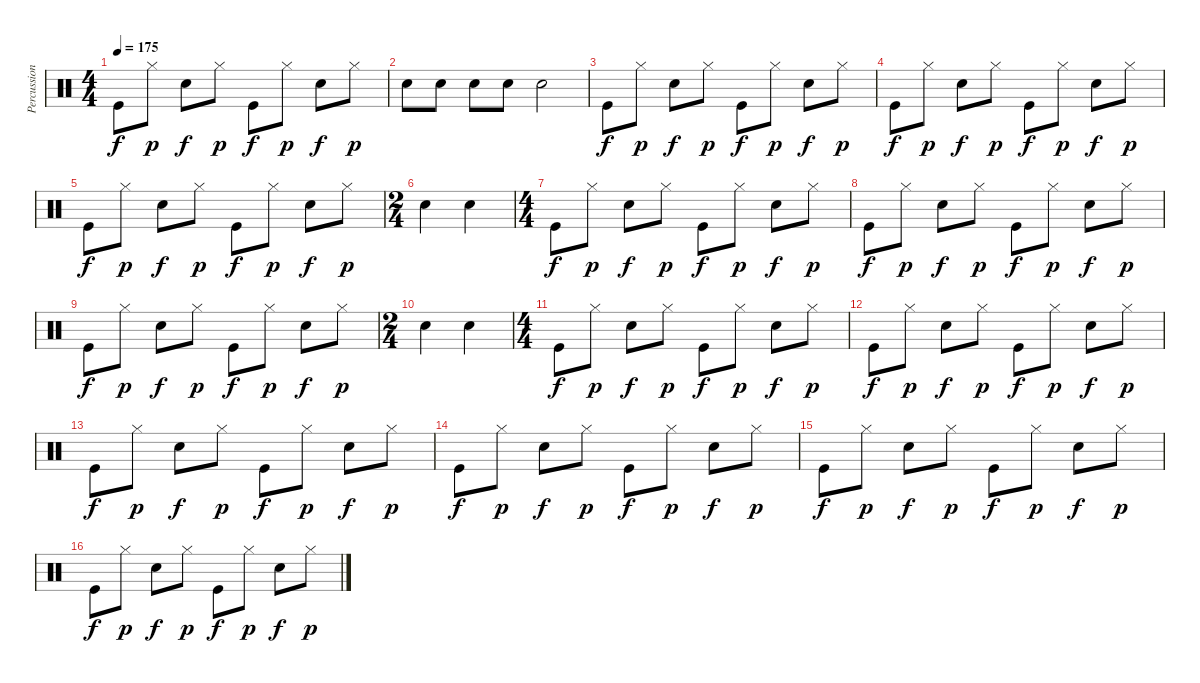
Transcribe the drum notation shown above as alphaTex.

\track ("Percussion" "Percussion") {instrument percussion}
\staff {score}
\articulation defaults
\ts (4 4)
\tempo 175
\clef neutral
\ks c "Kick (hit)".8{dy f} "Hi-Hat (closed)".8{dy p} "Snare (hit) 2".8{dy f} "Hi-Hat (closed)".8{dy p} "Kick (hit)".8{dy f} "Hi-Hat (closed)".8{dy p} "Snare (hit) 2".8{dy f} "Hi-Hat (closed)".8{dy p}
|
"Snare (hit) 2".8 "Snare (hit) 2".8 "Snare (hit) 2".8 "Snare (hit) 2".8 "Snare (hit) 2".2 |
"Kick (hit)".8{dy f} "Hi-Hat (closed)".8{dy p} "Snare (hit) 2".8{dy f} "Hi-Hat (closed)".8{dy p} "Kick (hit)".8{dy f} "Hi-Hat (closed)".8{dy p} "Snare (hit) 2".8{dy f} "Hi-Hat (closed)".8{dy p} |
"Kick (hit)".8{dy f} "Hi-Hat (closed)".8{dy p} "Snare (hit) 2".8{dy f} "Hi-Hat (closed)".8{dy p} "Kick (hit)".8{dy f} "Hi-Hat (closed)".8{dy p} "Snare (hit) 2".8{dy f} "Hi-Hat (closed)".8{dy p} |
"Kick (hit)".8{dy f} "Hi-Hat (closed)".8{dy p} "Snare (hit) 2".8{dy f} "Hi-Hat (closed)".8{dy p} "Kick (hit)".8{dy f} "Hi-Hat (closed)".8{dy p} "Snare (hit) 2".8{dy f} "Hi-Hat (closed)".8{dy p} |
\ts (2 4)
"Snare (hit) 2".4 "Snare (hit) 2".4 |
\ts (4 4)
"Kick (hit)".8{dy f} "Hi-Hat (closed)".8{dy p} "Snare (hit) 2".8{dy f} "Hi-Hat (closed)".8{dy p} "Kick (hit)".8{dy f} "Hi-Hat (closed)".8{dy p} "Snare (hit) 2".8{dy f} "Hi-Hat (closed)".8{dy p} |
"Kick (hit)".8{dy f} "Hi-Hat (closed)".8{dy p} "Snare (hit) 2".8{dy f} "Hi-Hat (closed)".8{dy p} "Kick (hit)".8{dy f} "Hi-Hat (closed)".8{dy p} "Snare (hit) 2".8{dy f} "Hi-Hat (closed)".8{dy p} |
"Kick (hit)".8{dy f} "Hi-Hat (closed)".8{dy p} "Snare (hit) 2".8{dy f} "Hi-Hat (closed)".8{dy p} "Kick (hit)".8{dy f} "Hi-Hat (closed)".8{dy p} "Snare (hit) 2".8{dy f} "Hi-Hat (closed)".8{dy p} |
\ts (2 4)
"Snare (hit) 2".4 "Snare (hit) 2".4 |
\ts (4 4)
"Kick (hit)".8{dy f} "Hi-Hat (closed)".8{dy p} "Snare (hit) 2".8{dy f} "Hi-Hat (closed)".8{dy p} "Kick (hit)".8{dy f} "Hi-Hat (closed)".8{dy p} "Snare (hit) 2".8{dy f} "Hi-Hat (closed)".8{dy p} |
"Kick (hit)".8{dy f} "Hi-Hat (closed)".8{dy p} "Snare (hit) 2".8{dy f} "Hi-Hat (closed)".8{dy p} "Kick (hit)".8{dy f} "Hi-Hat (closed)".8{dy p} "Snare (hit) 2".8{dy f} "Hi-Hat (closed)".8{dy p} |
"Kick (hit)".8{dy f} "Hi-Hat (closed)".8{dy p} "Snare (hit) 2".8{dy f} "Hi-Hat (closed)".8{dy p} "Kick (hit)".8{dy f} "Hi-Hat (closed)".8{dy p} "Snare (hit) 2".8{dy f} "Hi-Hat (closed)".8{dy p} |
"Kick (hit)".8{dy f} "Hi-Hat (closed)".8{dy p} "Snare (hit) 2".8{dy f} "Hi-Hat (closed)".8{dy p} "Kick (hit)".8{dy f} "Hi-Hat (closed)".8{dy p} "Snare (hit) 2".8{dy f} "Hi-Hat (closed)".8{dy p} |
"Kick (hit)".8{dy f} "Hi-Hat (closed)".8{dy p} "Snare (hit) 2".8{dy f} "Hi-Hat (closed)".8{dy p} "Kick (hit)".8{dy f} "Hi-Hat (closed)".8{dy p} "Snare (hit) 2".8{dy f} "Hi-Hat (closed)".8{dy p} |
"Kick (hit)".8{dy f} "Hi-Hat (closed)".8{dy p} "Snare (hit) 2".8{dy f} "Hi-Hat (closed)".8{dy p} "Kick (hit)".8{dy f} "Hi-Hat (closed)".8{dy p} "Snare (hit) 2".8{dy f} "Hi-Hat (closed)".8{dy p}
